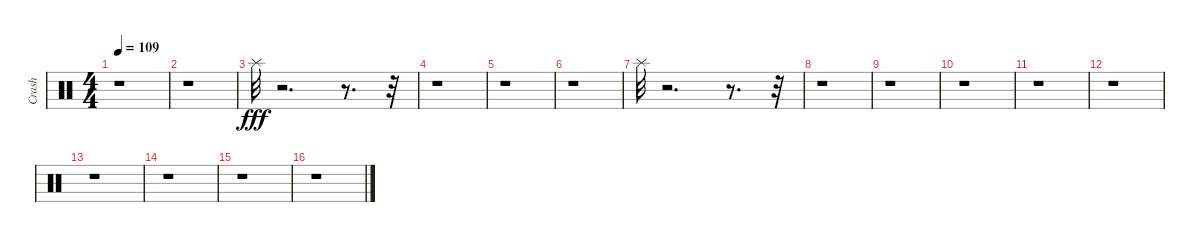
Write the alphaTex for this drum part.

\track ("Crash" "Crash") {instrument percussion}
\staff {score}
\articulation defaults
\ts (4 4)
\tempo 109
\clef neutral
\ks c
r.1{dy fff} |
r.1 |
"Splash (hit)".32 r.2{d} r.8{d} r.32 |
r.1 |
r.1 |
r.1 |
"Splash (hit)".32 r.2{d} r.8{d} r.32 |
r.1 |
r.1 |
r.1 |
r.1 |
r.1 |
r.1 |
r.1 |
r.1 |
r.1
